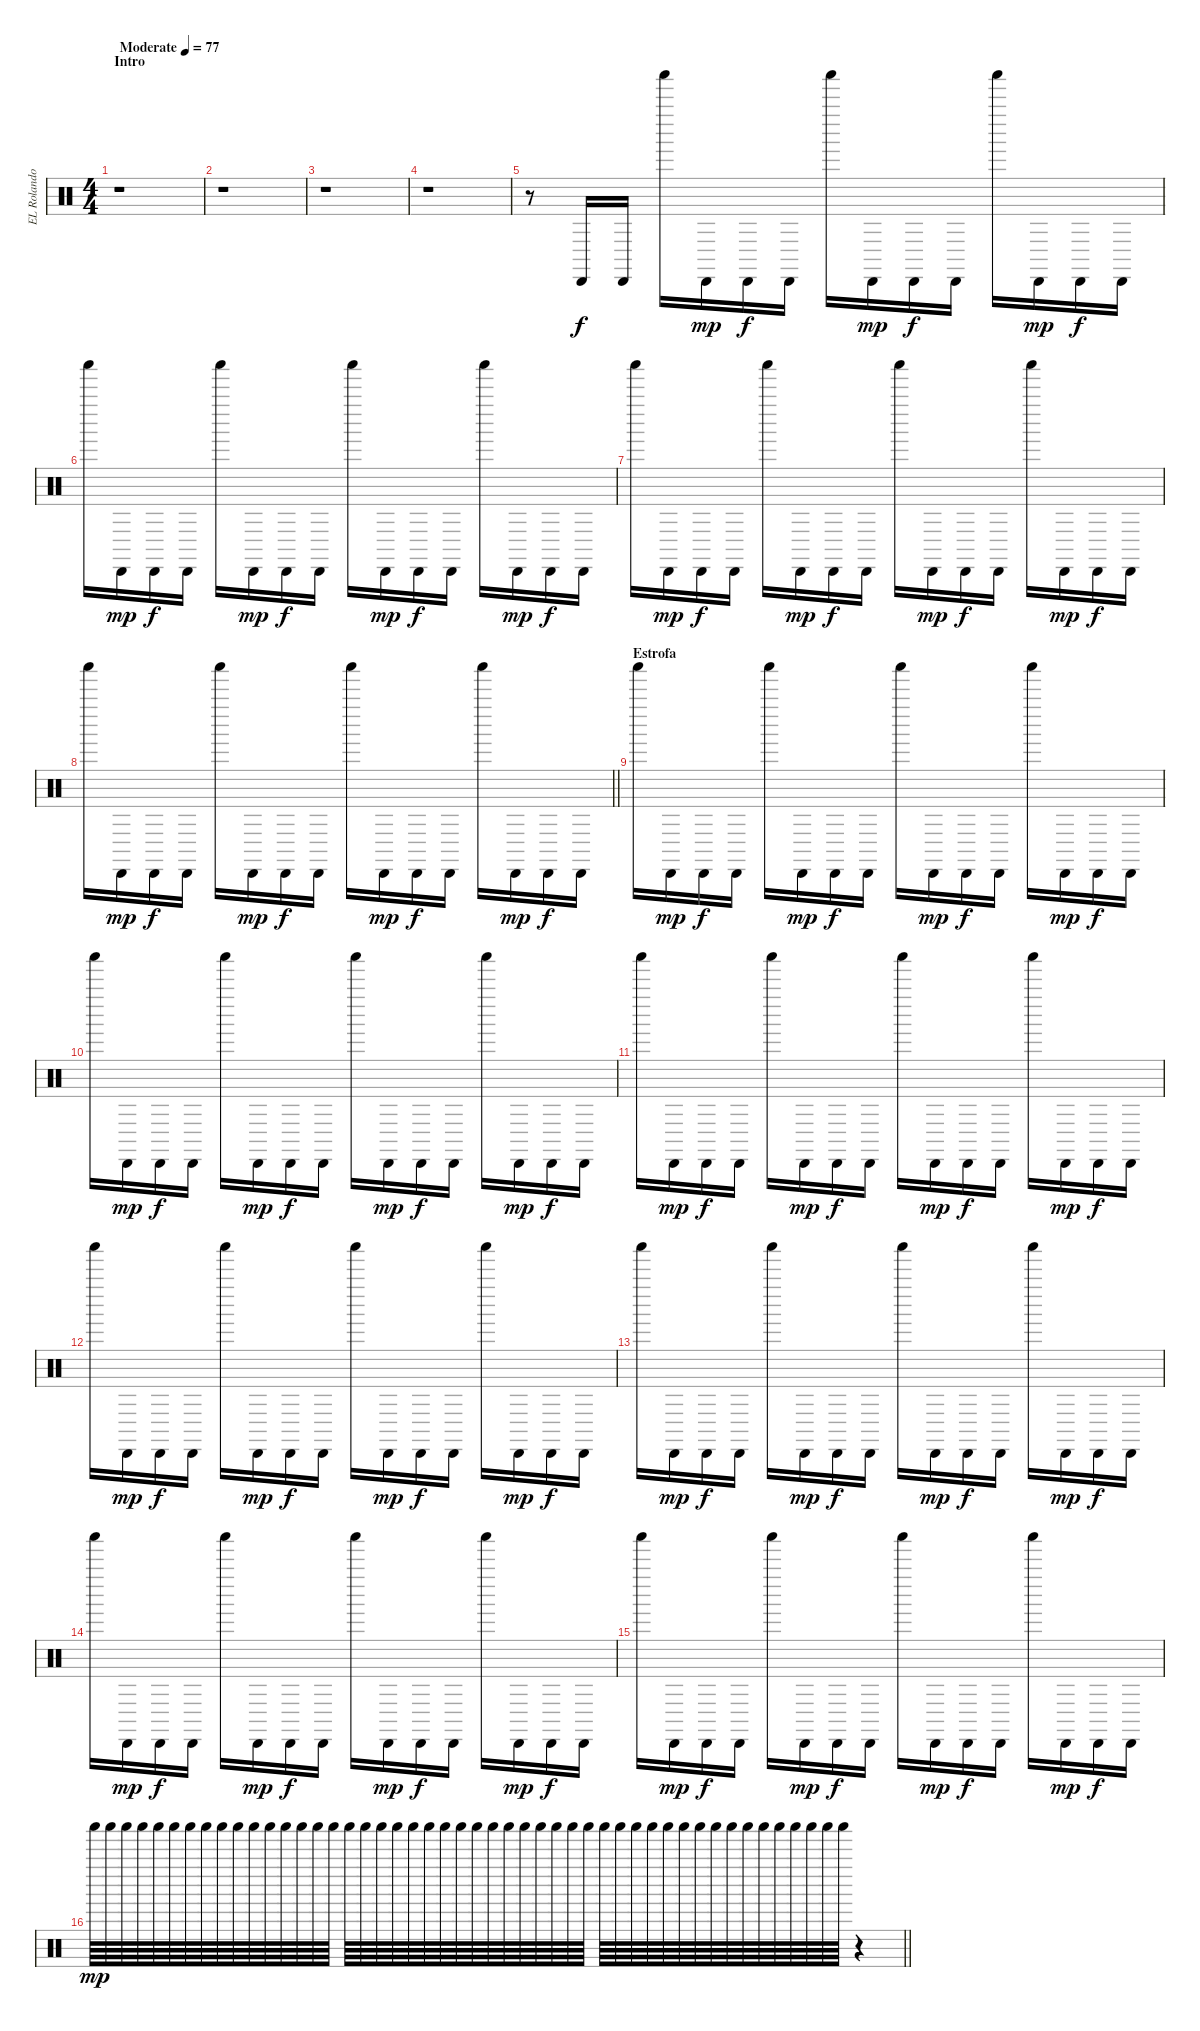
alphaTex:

\track ("EL Rolando" "EL Rolando") {instrument percussion}
\staff {score}
\articulation defaults
\ts (4 4)
\section ("" "Intro")
\tempo (77 "Moderate")
\clef neutral
\ks c
r.1{dy f} |
r.1 |
r.1 |
r.1 |
r.8 "Cabasa (hit)".16 "Cabasa (hit)".16 "Shaker (hit)".16 "Cabasa (hit)".16{dy mp} "Cabasa (hit)".16{dy f} "Cabasa (hit)".16 "Shaker (hit)".16 "Cabasa (hit)".16{dy mp} "Cabasa (hit)".16{dy f} "Cabasa (hit)".16 "Shaker (hit)".16 "Cabasa (hit)".16{dy mp} "Cabasa (hit)".16{dy f} "Cabasa (hit)".16 |
"Shaker (hit)".16 "Cabasa (hit)".16{dy mp} "Cabasa (hit)".16{dy f} "Cabasa (hit)".16 "Shaker (hit)".16 "Cabasa (hit)".16{dy mp} "Cabasa (hit)".16{dy f} "Cabasa (hit)".16 "Shaker (hit)".16 "Cabasa (hit)".16{dy mp} "Cabasa (hit)".16{dy f} "Cabasa (hit)".16 "Shaker (hit)".16 "Cabasa (hit)".16{dy mp} "Cabasa (hit)".16{dy f} "Cabasa (hit)".16 |
"Shaker (hit)".16 "Cabasa (hit)".16{dy mp} "Cabasa (hit)".16{dy f} "Cabasa (hit)".16 "Shaker (hit)".16 "Cabasa (hit)".16{dy mp} "Cabasa (hit)".16{dy f} "Cabasa (hit)".16 "Shaker (hit)".16 "Cabasa (hit)".16{dy mp} "Cabasa (hit)".16{dy f} "Cabasa (hit)".16 "Shaker (hit)".16 "Cabasa (hit)".16{dy mp} "Cabasa (hit)".16{dy f} "Cabasa (hit)".16 |
\barLineRight lightlight "Shaker (hit)".16 "Cabasa (hit)".16{dy mp} "Cabasa (hit)".16{dy f} "Cabasa (hit)".16 "Shaker (hit)".16 "Cabasa (hit)".16{dy mp} "Cabasa (hit)".16{dy f} "Cabasa (hit)".16 "Shaker (hit)".16 "Cabasa (hit)".16{dy mp} "Cabasa (hit)".16{dy f} "Cabasa (hit)".16 "Shaker (hit)".16 "Cabasa (hit)".16{dy mp} "Cabasa (hit)".16{dy f} "Cabasa (hit)".16
|
\section ("" "Estrofa")
"Shaker (hit)".16 "Cabasa (hit)".16{dy mp} "Cabasa (hit)".16{dy f} "Cabasa (hit)".16 "Shaker (hit)".16 "Cabasa (hit)".16{dy mp} "Cabasa (hit)".16{dy f} "Cabasa (hit)".16 "Shaker (hit)".16 "Cabasa (hit)".16{dy mp} "Cabasa (hit)".16{dy f} "Cabasa (hit)".16 "Shaker (hit)".16 "Cabasa (hit)".16{dy mp} "Cabasa (hit)".16{dy f} "Cabasa (hit)".16 |
"Shaker (hit)".16 "Cabasa (hit)".16{dy mp} "Cabasa (hit)".16{dy f} "Cabasa (hit)".16 "Shaker (hit)".16 "Cabasa (hit)".16{dy mp} "Cabasa (hit)".16{dy f} "Cabasa (hit)".16 "Shaker (hit)".16 "Cabasa (hit)".16{dy mp} "Cabasa (hit)".16{dy f} "Cabasa (hit)".16 "Shaker (hit)".16 "Cabasa (hit)".16{dy mp} "Cabasa (hit)".16{dy f} "Cabasa (hit)".16 |
"Shaker (hit)".16 "Cabasa (hit)".16{dy mp} "Cabasa (hit)".16{dy f} "Cabasa (hit)".16 "Shaker (hit)".16 "Cabasa (hit)".16{dy mp} "Cabasa (hit)".16{dy f} "Cabasa (hit)".16 "Shaker (hit)".16 "Cabasa (hit)".16{dy mp} "Cabasa (hit)".16{dy f} "Cabasa (hit)".16 "Shaker (hit)".16 "Cabasa (hit)".16{dy mp} "Cabasa (hit)".16{dy f} "Cabasa (hit)".16 |
"Shaker (hit)".16 "Cabasa (hit)".16{dy mp} "Cabasa (hit)".16{dy f} "Cabasa (hit)".16 "Shaker (hit)".16 "Cabasa (hit)".16{dy mp} "Cabasa (hit)".16{dy f} "Cabasa (hit)".16 "Shaker (hit)".16 "Cabasa (hit)".16{dy mp} "Cabasa (hit)".16{dy f} "Cabasa (hit)".16 "Shaker (hit)".16 "Cabasa (hit)".16{dy mp} "Cabasa (hit)".16{dy f} "Cabasa (hit)".16 |
"Shaker (hit)".16 "Cabasa (hit)".16{dy mp} "Cabasa (hit)".16{dy f} "Cabasa (hit)".16 "Shaker (hit)".16 "Cabasa (hit)".16{dy mp} "Cabasa (hit)".16{dy f} "Cabasa (hit)".16 "Shaker (hit)".16 "Cabasa (hit)".16{dy mp} "Cabasa (hit)".16{dy f} "Cabasa (hit)".16 "Shaker (hit)".16 "Cabasa (hit)".16{dy mp} "Cabasa (hit)".16{dy f} "Cabasa (hit)".16 |
"Shaker (hit)".16 "Cabasa (hit)".16{dy mp} "Cabasa (hit)".16{dy f} "Cabasa (hit)".16 "Shaker (hit)".16 "Cabasa (hit)".16{dy mp} "Cabasa (hit)".16{dy f} "Cabasa (hit)".16 "Shaker (hit)".16 "Cabasa (hit)".16{dy mp} "Cabasa (hit)".16{dy f} "Cabasa (hit)".16 "Shaker (hit)".16 "Cabasa (hit)".16{dy mp} "Cabasa (hit)".16{dy f} "Cabasa (hit)".16 |
"Shaker (hit)".16 "Cabasa (hit)".16{dy mp} "Cabasa (hit)".16{dy f} "Cabasa (hit)".16 "Shaker (hit)".16 "Cabasa (hit)".16{dy mp} "Cabasa (hit)".16{dy f} "Cabasa (hit)".16 "Shaker (hit)".16 "Cabasa (hit)".16{dy mp} "Cabasa (hit)".16{dy f} "Cabasa (hit)".16 "Shaker (hit)".16 "Cabasa (hit)".16{dy mp} "Cabasa (hit)".16{dy f} "Cabasa (hit)".16 |
\barLineRight lightlight "Shaker (hit)".64{dy mp volume 0} "Shaker (hit)".64 "Shaker (hit)".64 "Shaker (hit)".64 "Shaker (hit)".64 "Shaker (hit)".64 "Shaker (hit)".64 "Shaker (hit)".64 "Shaker (hit)".64 "Shaker (hit)".64 "Shaker (hit)".64 "Shaker (hit)".64 "Shaker (hit)".64 "Shaker (hit)".64 "Shaker (hit)".64 "Shaker (hit)".64 "Shaker (hit)".64 "Shaker (hit)".64 "Shaker (hit)".64 "Shaker (hit)".64 "Shaker (hit)".64 "Shaker (hit)".64 "Shaker (hit)".64 "Shaker (hit)".64 "Shaker (hit)".64 "Shaker (hit)".64 "Shaker (hit)".64 "Shaker (hit)".64 "Shaker (hit)".64 "Shaker (hit)".64 "Shaker (hit)".64 "Shaker (hit)".64 "Shaker (hit)".64 "Shaker (hit)".64 "Shaker (hit)".64 "Shaker (hit)".64 "Shaker (hit)".64 "Shaker (hit)".64 "Shaker (hit)".64 "Shaker (hit)".64 "Shaker (hit)".64 "Shaker (hit)".64 "Shaker (hit)".64 "Shaker (hit)".64 "Shaker (hit)".64 "Shaker (hit)".64 "Shaker (hit)".64 "Shaker (hit)".64
r.4
